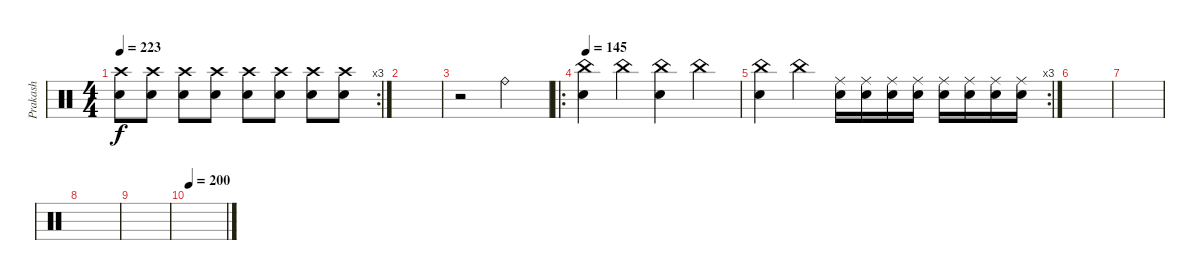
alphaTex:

\track ("Prakash" "Prakash") {instrument percussion}
\staff {score}
\articulation defaults
\rc 3
\ts (4 4)
\tempo 223
\clef neutral
\ks c
("Snare (hit) 2" "Crash high (hit)").8{dy f} ("Snare (hit) 2" "Crash high (hit)").8 ("Snare (hit) 2" "Crash high (hit)").8 ("Snare (hit) 2" "Crash high (hit)").8 ("Snare (hit) 2" "Crash high (hit)").8 ("Snare (hit) 2" "Crash high (hit)").8 ("Snare (hit) 2" "Crash high (hit)").8 ("Snare (hit) 2" "Crash high (hit)").8 |
|
r.2 "Ride (bell)".2 |
\ro
\tempo 145
("Snare (hit) 2" "China (hit)").4 "China (hit)".4 ("Snare (hit) 2" "China (hit)").4 "China (hit)".4 |
\rc 3
("Snare (hit) 2" "China (hit)").4 "China (hit)".4 ("Snare (hit) 2" "Ride (middle)").16 ("Snare (hit) 2" "Ride (middle)").16 ("Snare (hit) 2" "Ride (middle)").16 ("Snare (hit) 2" "Ride (middle)").16 ("Snare (hit) 2" "Ride (middle)").16 ("Snare (hit) 2" "Ride (middle)").16 ("Snare (hit) 2" "Ride (middle)").16 ("Snare (hit) 2" "Ride (middle)").16 |
|
|
|
|
\tempo 200
